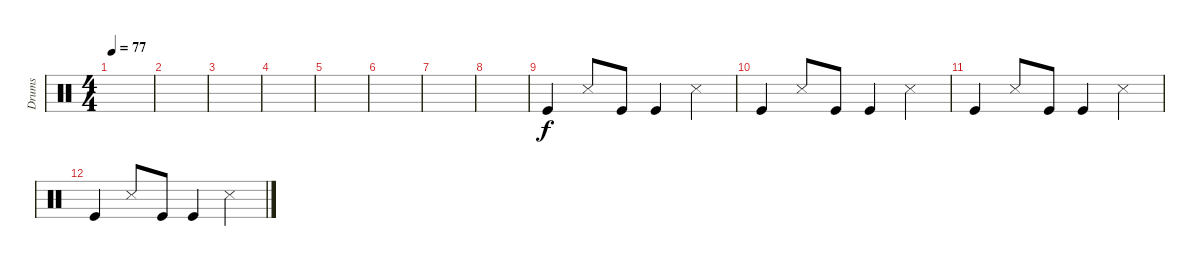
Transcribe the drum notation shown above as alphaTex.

\track ("Drums" "Drums") {instrument percussion}
\staff {score}
\articulation defaults
\ts (4 4)
\tempo 77
\clef neutral
\ks c
|
|
|
|
|
|
|
|
"Kick (hit)".4 "Snare (side stick) 3".8 "Kick (hit)".8 "Kick (hit)".4 "Snare (side stick) 3".4 |
"Kick (hit)".4 "Snare (side stick) 3".8 "Kick (hit)".8 "Kick (hit)".4 "Snare (side stick) 3".4 |
"Kick (hit)".4 "Snare (side stick) 3".8 "Kick (hit)".8 "Kick (hit)".4 "Snare (side stick) 3".4 |
"Kick (hit)".4 "Snare (side stick) 3".8 "Kick (hit)".8 "Kick (hit)".4 "Snare (side stick) 3".4
